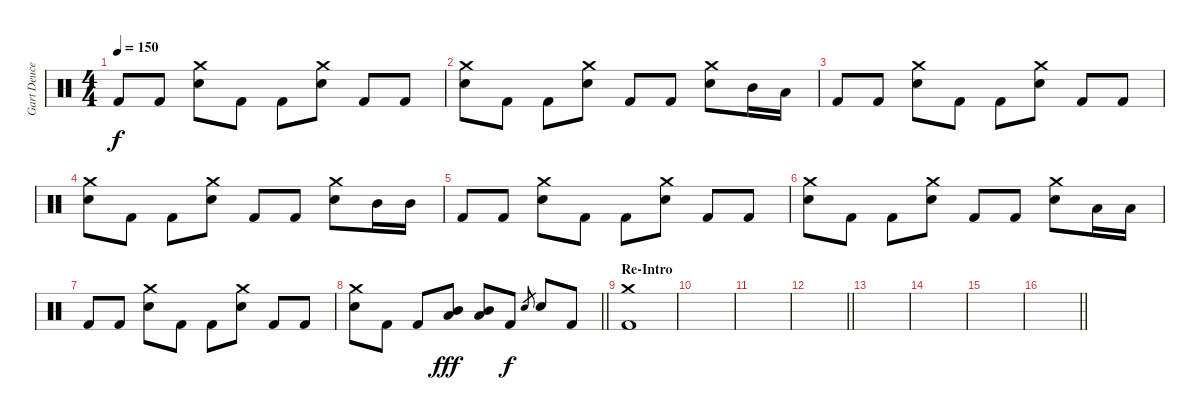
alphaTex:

\track ("Gart Deuce" "Gart Deuce") {instrument percussion}
\staff {score}
\articulation defaults
\ts (4 4)
\tempo 150
\clef neutral
\ks c "Kick (hit) 2".8{dy f} "Kick (hit) 2".8
("Crash medium (hit)" "Snare (hit) 2").8 "Kick (hit) 2".8 "Kick (hit) 2".8 ("Crash medium (hit)" "Snare (hit) 2").8 "Kick (hit) 2".8 "Kick (hit) 2".8 |
("Crash medium (hit)" "Snare (hit) 2").8 "Kick (hit) 2".8 "Kick (hit) 2".8 ("Crash medium (hit)" "Snare (hit) 2").8 "Kick (hit) 2".8 "Kick (hit) 2".8 ("Crash medium (hit)" "Snare (hit) 2").8 "Mid Tom (hit)".16 "Low Tom (hit)".16 |
"Kick (hit) 2".8 "Kick (hit) 2".8 ("Crash medium (hit)" "Snare (hit) 2").8 "Kick (hit) 2".8 "Kick (hit) 2".8 ("Crash medium (hit)" "Snare (hit) 2").8 "Kick (hit) 2".8 "Kick (hit) 2".8 |
("Crash medium (hit)" "Snare (hit) 2").8 "Kick (hit) 2".8 "Kick (hit) 2".8 ("Crash medium (hit)" "Snare (hit) 2").8 "Kick (hit) 2".8 "Kick (hit) 2".8 ("Crash medium (hit)" "Snare (hit) 2").8 "Mid Tom (hit)".16 "Mid Tom (hit)".16 |
"Kick (hit) 2".8 "Kick (hit) 2".8 ("Crash medium (hit)" "Snare (hit) 2").8 "Kick (hit) 2".8 "Kick (hit) 2".8 ("Crash medium (hit)" "Snare (hit) 2").8 "Kick (hit) 2".8 "Kick (hit) 2".8 |
("Crash medium (hit)" "Snare (hit) 2").8 "Kick (hit) 2".8 "Kick (hit) 2".8 ("Crash medium (hit)" "Snare (hit) 2").8 "Kick (hit) 2".8 "Kick (hit) 2".8 ("Crash medium (hit)" "Snare (hit) 2").8 "Low Tom (hit)".16 "Low Tom (hit)".16 |
"Kick (hit) 2".8 "Kick (hit) 2".8 ("Crash medium (hit)" "Snare (hit) 2").8 "Kick (hit) 2".8 "Kick (hit) 2".8 ("Crash medium (hit)" "Snare (hit) 2").8 "Kick (hit) 2".8 "Kick (hit) 2".8 |
\barLineRight lightlight
("Crash medium (hit)" "Snare (hit) 2").8 "Kick (hit) 2".8 "Kick (hit) 2".8 ("Mid Tom (hit)" "Low Tom (hit)").8{dy fff} ("Mid Tom (hit)" "Low Tom (hit)").8 "Kick (hit) 2".8{dy f} "Snare (hit) 2".8{gr} "Snare (hit) 2".8 "Kick (hit) 2".8 |
\section ("" "Re-Intro")
("Crash medium (hit)" "Kick (hit) 2").1 |
|
|
\barLineRight lightlight
|
|
|
|
\barLineRight lightlight
